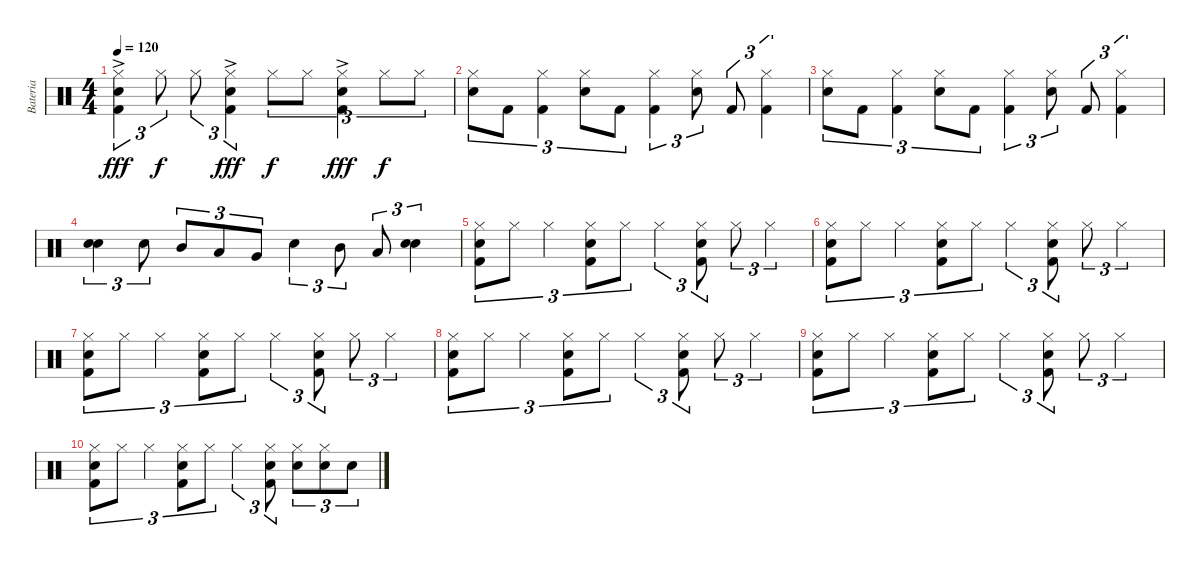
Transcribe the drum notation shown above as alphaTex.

\track ("Bateria" "Bateria") {instrument percussion}
\staff {score}
\articulation defaults
\ts (4 4)
\tempo 120
\clef neutral
\ks c
("Hi-Hat (closed)" "Snare (hit) 2"{ac} "Kick (hit) 2").4{tu (3 2) dy fff} "Hi-Hat (closed)".8{tu (3 2) dy f} "Hi-Hat (closed)".8{tu (3 2)} ("Hi-Hat (closed)" "Snare (hit) 2"{ac} "Kick (hit) 2").4{tu (3 2) dy fff} "Hi-Hat (closed)".8{tu (3 2) dy f} "Hi-Hat (closed)".8{tu (3 2)} ("Hi-Hat (closed)" "Snare (hit) 2"{ac} "Kick (hit) 2").4{tu (3 2) dy fff} "Hi-Hat (closed)".8{tu (3 2) dy f} "Hi-Hat (closed)".8{tu (3 2)} |
("Hi-Hat (closed)" "Snare (hit) 2").8{tu (3 2)} "Kick (hit) 2".8{tu (3 2)} ("Hi-Hat (closed)" "Kick (hit) 2").4{tu (3 2)} ("Hi-Hat (closed)" "Snare (hit) 2").8{tu (3 2)} "Kick (hit) 2".8{tu (3 2)} ("Hi-Hat (closed)" "Kick (hit) 2").4{tu (3 2)} ("Hi-Hat (closed)" "Snare (hit) 2").8{tu (3 2)} "Kick (hit) 2".8{tu (3 2)} ("Hi-Hat (closed)" "Kick (hit) 2").4{tu (3 2)} |
("Hi-Hat (closed)" "Snare (hit) 2").8{tu (3 2)} "Kick (hit) 2".8{tu (3 2)} ("Hi-Hat (closed)" "Kick (hit) 2").4{tu (3 2)} ("Hi-Hat (closed)" "Snare (hit) 2").8{tu (3 2)} "Kick (hit) 2".8{tu (3 2)} ("Hi-Hat (closed)" "Kick (hit) 2").4{tu (3 2)} ("Hi-Hat (closed)" "Snare (hit) 2").8{tu (3 2)} "Kick (hit) 2".8{tu (3 2)} ("Hi-Hat (closed)" "Kick (hit) 2").4{tu (3 2)} |
("Snare (hit) 2" "Snare (hit) 2").4{tu (3 2)} "Snare (hit) 2".8{tu (3 2)} "Mid Tom (hit)".8{tu (3 2)} "Low Tom (hit)".8{tu (3 2)} "Very Low Tom (hit)".8{tu (3 2)} "Snare (hit) 2".4{tu (3 2)} "Mid Tom (hit)".8{tu (3 2)} "Low Tom (hit)".8{tu (3 2)} ("Snare (hit) 2" "Snare (hit) 2").4{tu (3 2)} |
("Hi-Hat (closed)" "Snare (hit) 2" "Kick (hit) 2").8{tu (3 2)} "Hi-Hat (closed)".8{tu (3 2)} "Hi-Hat (closed)".4{tu (3 2)} ("Hi-Hat (closed)" "Snare (hit) 2" "Kick (hit) 2").8{tu (3 2)} "Hi-Hat (closed)".8{tu (3 2)} "Hi-Hat (closed)".4{tu (3 2)} ("Hi-Hat (closed)" "Snare (hit) 2" "Kick (hit) 2").8{tu (3 2)} "Hi-Hat (closed)".8{tu (3 2)} "Hi-Hat (closed)".4{tu (3 2)} |
("Hi-Hat (closed)" "Snare (hit) 2" "Kick (hit) 2").8{tu (3 2)} "Hi-Hat (closed)".8{tu (3 2)} "Hi-Hat (closed)".4{tu (3 2)} ("Hi-Hat (closed)" "Snare (hit) 2" "Kick (hit) 2").8{tu (3 2)} "Hi-Hat (closed)".8{tu (3 2)} "Hi-Hat (closed)".4{tu (3 2)} ("Hi-Hat (closed)" "Snare (hit) 2" "Kick (hit) 2").8{tu (3 2)} "Hi-Hat (closed)".8{tu (3 2)} "Hi-Hat (closed)".4{tu (3 2)} |
("Hi-Hat (closed)" "Snare (hit) 2" "Kick (hit) 2").8{tu (3 2)} "Hi-Hat (closed)".8{tu (3 2)} "Hi-Hat (closed)".4{tu (3 2)} ("Hi-Hat (closed)" "Snare (hit) 2" "Kick (hit) 2").8{tu (3 2)} "Hi-Hat (closed)".8{tu (3 2)} "Hi-Hat (closed)".4{tu (3 2)} ("Hi-Hat (closed)" "Snare (hit) 2" "Kick (hit) 2").8{tu (3 2)} "Hi-Hat (closed)".8{tu (3 2)} "Hi-Hat (closed)".4{tu (3 2)} |
("Hi-Hat (closed)" "Snare (hit) 2" "Kick (hit) 2").8{tu (3 2)} "Hi-Hat (closed)".8{tu (3 2)} "Hi-Hat (closed)".4{tu (3 2)} ("Hi-Hat (closed)" "Snare (hit) 2" "Kick (hit) 2").8{tu (3 2)} "Hi-Hat (closed)".8{tu (3 2)} "Hi-Hat (closed)".4{tu (3 2)} ("Hi-Hat (closed)" "Snare (hit) 2" "Kick (hit) 2").8{tu (3 2)} "Hi-Hat (closed)".8{tu (3 2)} "Hi-Hat (closed)".4{tu (3 2)} |
("Hi-Hat (closed)" "Snare (hit) 2" "Kick (hit) 2").8{tu (3 2)} "Hi-Hat (closed)".8{tu (3 2)} "Hi-Hat (closed)".4{tu (3 2)} ("Hi-Hat (closed)" "Snare (hit) 2" "Kick (hit) 2").8{tu (3 2)} "Hi-Hat (closed)".8{tu (3 2)} "Hi-Hat (closed)".4{tu (3 2)} ("Hi-Hat (closed)" "Snare (hit) 2" "Kick (hit) 2").8{tu (3 2)} "Hi-Hat (closed)".8{tu (3 2)} "Hi-Hat (closed)".4{tu (3 2)} |
("Hi-Hat (closed)" "Snare (hit) 2" "Kick (hit) 2").8{tu (3 2)} "Hi-Hat (closed)".8{tu (3 2)} "Hi-Hat (closed)".4{tu (3 2)} ("Hi-Hat (closed)" "Snare (hit) 2" "Kick (hit) 2").8{tu (3 2)} "Hi-Hat (closed)".8{tu (3 2)} "Hi-Hat (closed)".4{tu (3 2)} ("Hi-Hat (closed)" "Snare (hit) 2" "Kick (hit) 2").8{tu (3 2)} ("Hi-Hat (closed)" "Snare (hit) 2").8{tu (3 2)} ("Hi-Hat (closed)" "Snare (hit) 2").8{tu (3 2)} "Snare (hit) 2".8{tu (3 2)}
